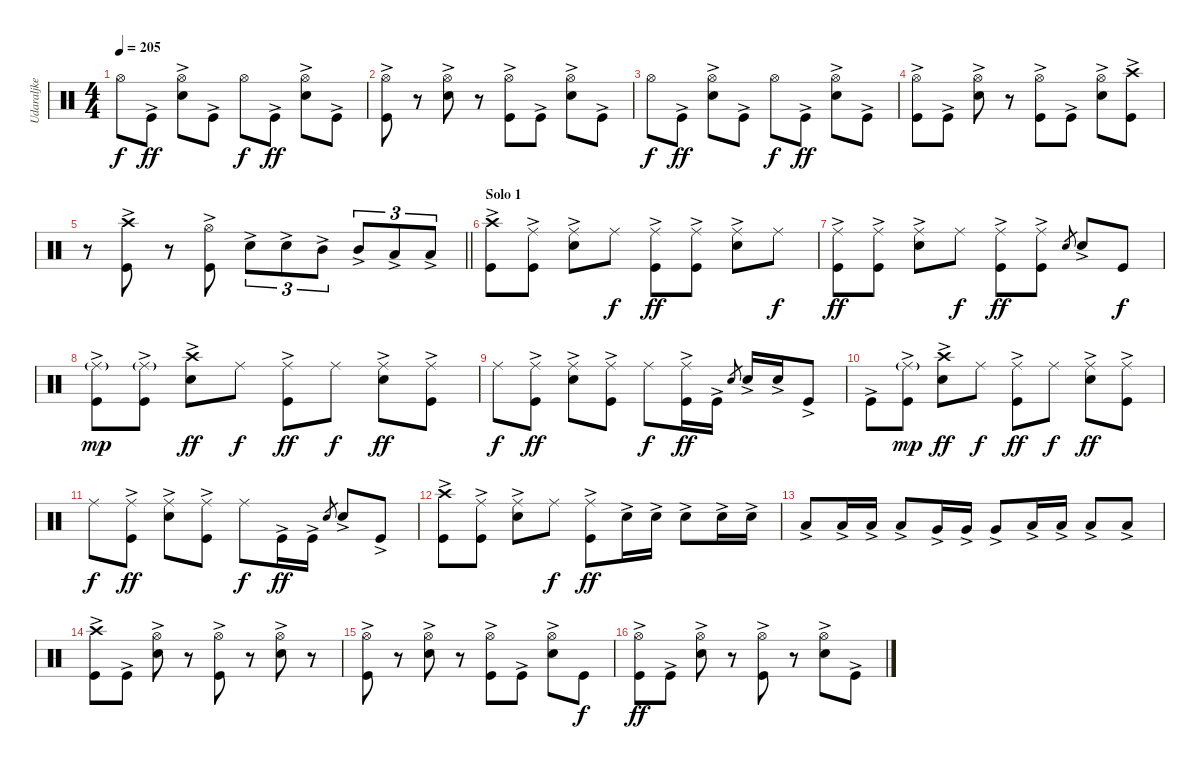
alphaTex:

\track ("Udaraljke" "Udaraljke") {instrument percussion}
\staff {score}
\articulation defaults
\ts (4 4)
\tempo 205
\clef neutral
\ks c "Hi-Hat (open)".8{dy f} "Kick (hit)"{ac}.8{dy ff}
("Snare (hit) 2"{ac} "Hi-Hat (open)").8 "Kick (hit)"{ac}.8 "Hi-Hat (open)".8{dy f} "Kick (hit)"{ac}.8{dy ff} ("Hi-Hat (open)" "Snare (hit) 2"{ac}).8 "Kick (hit)"{ac}.8 |
("Kick (hit)"{ac} "Hi-Hat (open)").8 r.8 ("Hi-Hat (open)" "Snare (hit) 2"{ac}).8 r.8 ("Hi-Hat (open)" "Kick (hit)"{ac}).8 "Kick (hit)"{ac}.8 ("Snare (hit) 2"{ac} "Hi-Hat (open)").8 "Kick (hit)"{ac}.8 |
"Hi-Hat (open)".8{dy f} "Kick (hit)"{ac}.8{dy ff} ("Snare (hit) 2"{ac} "Hi-Hat (open)").8 "Kick (hit)"{ac}.8 "Hi-Hat (open)".8{dy f} "Kick (hit)"{ac}.8{dy ff} ("Hi-Hat (open)" "Snare (hit) 2"{ac}).8 "Kick (hit)"{ac}.8 |
("Kick (hit)"{ac} "Hi-Hat (open)").8 "Kick (hit)"{ac}.8 ("Hi-Hat (open)" "Snare (hit) 2"{ac}).8 r.8 ("Hi-Hat (open)" "Kick (hit)"{ac}).8 "Kick (hit)"{ac}.8 ("Snare (hit) 2"{ac} "Hi-Hat (open)").8 ("Kick (hit)"{ac} "Crash high (hit)").8 |
\barLineRight lightlight
r.8 ("Kick (hit)"{ac} "Crash high (hit)").8 r.8 ("Kick (hit)"{ac} "Hi-Hat (open)").8 "Snare (hit) 2"{ac}.8{tu (3 2)} "Snare (hit) 2"{ac}.8{tu (3 2)} "Mid Tom (hit)"{ac}.8{tu (3 2)} "Mid Tom (hit)"{ac}.8{tu (3 2)} "Low Tom (hit)"{ac}.8{tu (3 2)} "Low Tom (hit)"{ac}.8{tu (3 2)} |
\section ("" "Solo 1")
("Kick (hit)"{ac} "Crash high (hit)").8 ("Kick (hit)"{ac} "Ride (middle)").8 ("Ride (middle)" "Snare (hit) 2"{ac}).8 "Ride (middle)".8{dy f} ("Kick (hit)"{ac} "Ride (middle)").8{dy ff} ("Kick (hit)"{ac} "Ride (middle)").8 ("Ride (middle)" "Snare (hit) 2"{ac}).8 "Ride (middle)".8{dy f} |
("Kick (hit)"{ac} "Ride (middle)").8{dy ff} ("Kick (hit)"{ac} "Ride (middle)").8 ("Ride (middle)" "Snare (hit) 2"{ac}).8 "Ride (middle)".8{dy f} ("Kick (hit)"{ac} "Ride (middle)").8{dy ff} ("Kick (hit)"{ac} "Ride (middle)").8 "Snare (hit) 2".8{gr} "Snare (hit) 2"{ac}.8 "Kick (hit)".8{dy f} |
("Kick (hit)"{ac} "Ride (middle)"{g}).8{dy mp} ("Kick (hit)"{ac} "Ride (middle)"{g}).8 ("Crash high (hit)" "Snare (hit) 2"{ac}).8{dy ff} "Ride (middle)".8{dy f} ("Kick (hit)"{ac} "Ride (middle)").8{dy ff} "Ride (middle)".8{dy f} ("Ride (middle)" "Snare (hit) 2"{ac}).8{dy ff} ("Kick (hit)"{ac} "Ride (middle)").8 |
"Ride (middle)".8{dy f} ("Kick (hit)"{ac} "Ride (middle)").8{dy ff} ("Ride (middle)" "Snare (hit) 2"{ac}).8 ("Kick (hit)"{ac} "Ride (middle)").8 "Ride (middle)".8{dy f} ("Kick (hit)"{ac} "Ride (middle)").16{dy ff} "Kick (hit)"{ac}.16 "Snare (hit) 2".8{gr} "Snare (hit) 2"{ac}.16 "Snare (hit) 2"{ac}.16 "Kick (hit)"{ac}.8 |
"Kick (hit)"{ac}.8 ("Kick (hit)"{ac} "Ride (middle)"{g}).8{dy mp} ("Crash high (hit)" "Snare (hit) 2"{ac}).8{dy ff} "Ride (middle)".8{dy f} ("Kick (hit)"{ac} "Ride (middle)").8{dy ff} "Ride (middle)".8{dy f} ("Ride (middle)" "Snare (hit) 2"{ac}).8{dy ff} ("Kick (hit)"{ac} "Ride (middle)").8 |
"Ride (middle)".8{dy f} ("Kick (hit)"{ac} "Ride (middle)").8{dy ff} ("Ride (middle)" "Snare (hit) 2"{ac}).8 ("Kick (hit)"{ac} "Ride (middle)").8 "Ride (middle)".8{dy f} "Kick (hit)"{ac}.16{dy ff} "Kick (hit)"{ac}.16 "Snare (hit) 2".8{gr} "Snare (hit) 2"{ac}.8 "Kick (hit)"{ac}.8 |
("Kick (hit)"{ac} "Crash high (hit)").8 ("Kick (hit)"{ac} "Ride (middle)").8 ("Snare (hit) 2"{ac} "Ride (middle)").8 "Ride (middle)".8{dy f} ("Kick (hit)"{ac} "Ride (middle)").8{dy ff} "Snare (hit) 2"{ac}.16 "Snare (hit) 2"{ac}.16 "Snare (hit) 2"{ac}.8 "Snare (hit) 2"{ac}.16 "Snare (hit) 2"{ac}.16 |
"Low Tom (hit)"{ac}.8 "Low Tom (hit)"{ac}.16 "Low Tom (hit)"{ac}.16 "Low Tom (hit)"{ac}.8 "Very Low Tom (hit)"{ac}.16 "Very Low Tom (hit)"{ac}.16 "Very Low Tom (hit)"{ac}.8 "Low Floor Tom (hit)"{ac}.16 "Low Floor Tom (hit)"{ac}.16 "Low Floor Tom (hit)"{ac}.8 "Low Floor Tom (hit)"{ac}.8 |
("Kick (hit)"{ac} "Crash high (hit)").8 "Kick (hit)"{ac}.8 ("Hi-Hat (open)" "Snare (hit) 2"{ac}).8 r.8 ("Kick (hit)"{ac} "Hi-Hat (open)").8 r.8 ("Hi-Hat (open)" "Snare (hit) 2"{ac}).8 r.8 |
("Kick (hit)"{ac} "Hi-Hat (open)").8 r.8 ("Hi-Hat (open)" "Snare (hit) 2"{ac}).8 r.8 ("Kick (hit)"{ac} "Hi-Hat (open)").8 "Kick (hit)"{ac}.8 ("Hi-Hat (open)" "Snare (hit) 2"{ac}).8 "Kick (hit)".8{dy f} |
("Kick (hit)"{ac} "Hi-Hat (open)").8{dy ff} "Kick (hit)"{ac}.8 ("Hi-Hat (open)" "Snare (hit) 2"{ac}).8 r.8 ("Kick (hit)"{ac} "Hi-Hat (open)").8 r.8 ("Hi-Hat (open)" "Snare (hit) 2"{ac}).8 "Kick (hit)"{ac}.8
